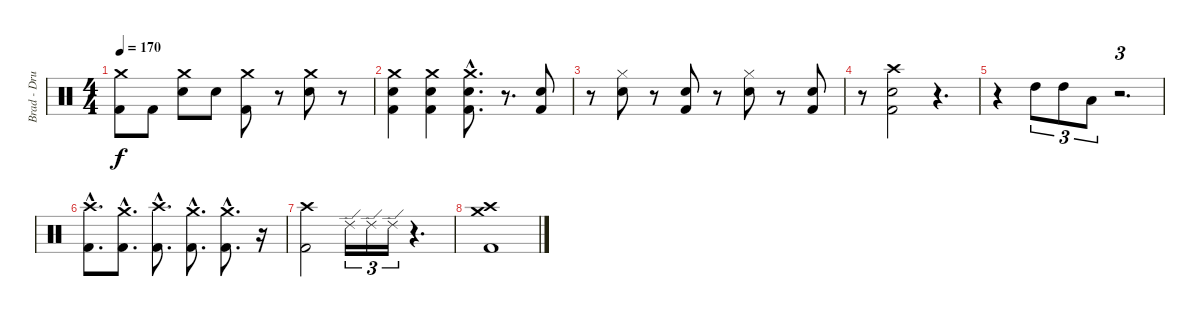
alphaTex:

\track ("Brad - Drums" "Brad - Dru") {instrument percussion}
\staff {score}
\articulation defaults
\ts (4 4)
\tempo 170
\clef neutral
\ks c
("Crash medium (hit)" "Kick (hit) 2").8{dy f} "Kick (hit) 2".8 ("Crash medium (hit)" "Electric Snare (hit)").8 "Electric Snare (hit)".8 ("Crash medium (hit)" "Kick (hit) 2").8 r.8 ("Crash medium (hit)" "Electric Snare (hit)").8 r.8 |
("Crash medium (hit)" "Electric Snare (hit)" "Kick (hit) 2").4 ("Crash medium (hit)" "Electric Snare (hit)" "Kick (hit) 2").4 ("Crash medium (hit)"{hac} "Electric Snare (hit)"{hac} "Kick (hit) 2"{hac}).8{d} r.8{d} ("Electric Snare (hit)" "Kick (hit) 2").8 |
r.8 ("Hi-Hat (closed)" "Electric Snare (hit)").8 r.8 ("Electric Snare (hit)" "Kick (hit) 2").8 r.8 ("Hi-Hat (closed)" "Electric Snare (hit)").8 r.8 ("Electric Snare (hit)" "Kick (hit) 2").8 |
r.8 ("Crash high (hit)" "Electric Snare (hit)" "Kick (hit) 2").2 r.4{d} |
r.4 "High Tom (hit)".8{tu (3 2)} "High Tom (hit)".8{tu (3 2)} "Low Tom (hit)".8{tu (3 2)} r.2{d tu (3 2)} |
("Crash high (hit)"{hac} "Kick (hit) 2"{hac}).8{d} ("Crash medium (hit)"{hac} "Kick (hit) 2"{hac}).8{d} ("Crash high (hit)"{hac} "Kick (hit) 2"{hac}).8{d} ("Crash medium (hit)"{hac} "Kick (hit) 2"{hac}).8{d} ("Crash medium (hit)"{hac} "Kick (hit) 2"{hac}).8{d} r.16 |
("Crash high (hit)" "Kick (hit) 2").2 "Ride (edge) 2".16{tu (3 2)} "Ride (edge) 2".16{tu (3 2)} "Ride (edge) 2".16{tu (3 2)} r.4{d} |
("Crash high (hit)" "Crash medium (hit)" "Kick (hit) 2").1
